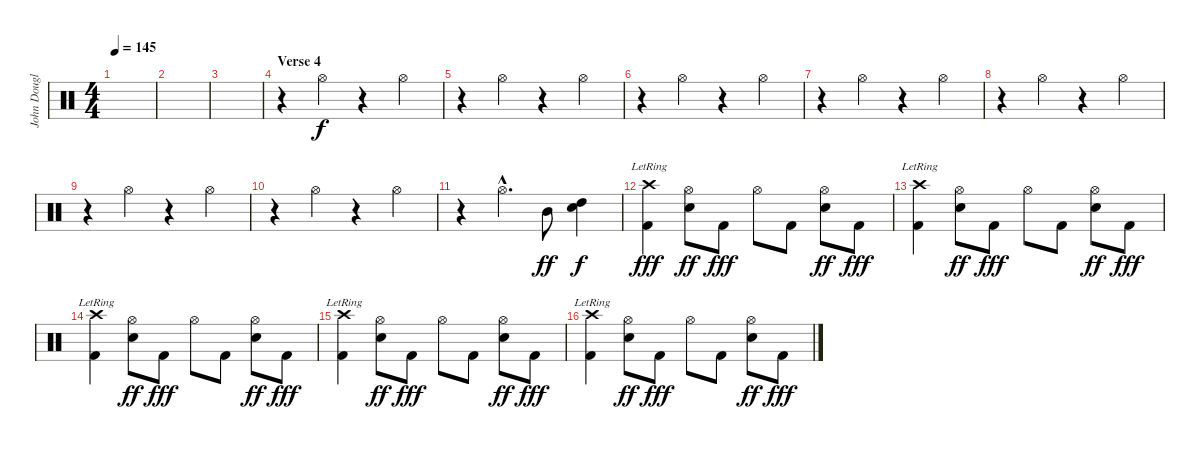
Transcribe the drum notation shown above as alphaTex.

\track ("John Douglas (Drums)" "John Dougl") {instrument percussion}
\staff {score}
\articulation defaults
\ts (4 4)
\tempo 145
\clef neutral
\ks c
|
|
|
\section ("" "Verse 4")
r.4 "Hi-Hat (open)".4{dy f} r.4 "Hi-Hat (open)".4 |
r.4 "Hi-Hat (open)".4 r.4 "Hi-Hat (open)".4 |
r.4 "Hi-Hat (open)".4 r.4 "Hi-Hat (open)".4 |
r.4 "Hi-Hat (open)".4 r.4 "Hi-Hat (open)".4 |
r.4 "Hi-Hat (open)".4 r.4 "Hi-Hat (open)".4 |
r.4 "Hi-Hat (open)".4 r.4 "Hi-Hat (open)".4 |
r.4 "Hi-Hat (open)".4 r.4 "Hi-Hat (open)".4 |
r.4 "Hi-Hat (open)"{hac}.4{d} "Mid Tom (hit)".8{dy ff} ("Snare (hit) 2" "High Tom (hit)").4{dy f} |
("Crash high (hit)"{lr} "Kick (hit) 2").4{dy fff} ("Hi-Hat (open)" "Snare (hit) 2").8{dy ff} "Kick (hit) 2".8{dy fff} "Hi-Hat (open)".8 "Kick (hit) 2".8 ("Hi-Hat (open)" "Snare (hit) 2").8{dy ff} "Kick (hit) 2".8{dy fff} |
("Crash high (hit)"{lr} "Kick (hit) 2").4 ("Hi-Hat (open)" "Snare (hit) 2").8{dy ff} "Kick (hit) 2".8{dy fff} "Hi-Hat (open)".8 "Kick (hit) 2".8 ("Hi-Hat (open)" "Snare (hit) 2").8{dy ff} "Kick (hit) 2".8{dy fff} |
("Crash high (hit)"{lr} "Kick (hit) 2").4 ("Hi-Hat (open)" "Snare (hit) 2").8{dy ff} "Kick (hit) 2".8{dy fff} "Hi-Hat (open)".8 "Kick (hit) 2".8 ("Hi-Hat (open)" "Snare (hit) 2").8{dy ff} "Kick (hit) 2".8{dy fff} |
("Crash high (hit)"{lr} "Kick (hit) 2").4 ("Hi-Hat (open)" "Snare (hit) 2").8{dy ff} "Kick (hit) 2".8{dy fff} "Hi-Hat (open)".8 "Kick (hit) 2".8 ("Hi-Hat (open)" "Snare (hit) 2").8{dy ff} "Kick (hit) 2".8{dy fff} |
("Crash high (hit)"{lr} "Kick (hit) 2").4 ("Hi-Hat (open)" "Snare (hit) 2").8{dy ff} "Kick (hit) 2".8{dy fff} "Hi-Hat (open)".8 "Kick (hit) 2".8 ("Hi-Hat (open)" "Snare (hit) 2").8{dy ff} "Kick (hit) 2".8{dy fff}
